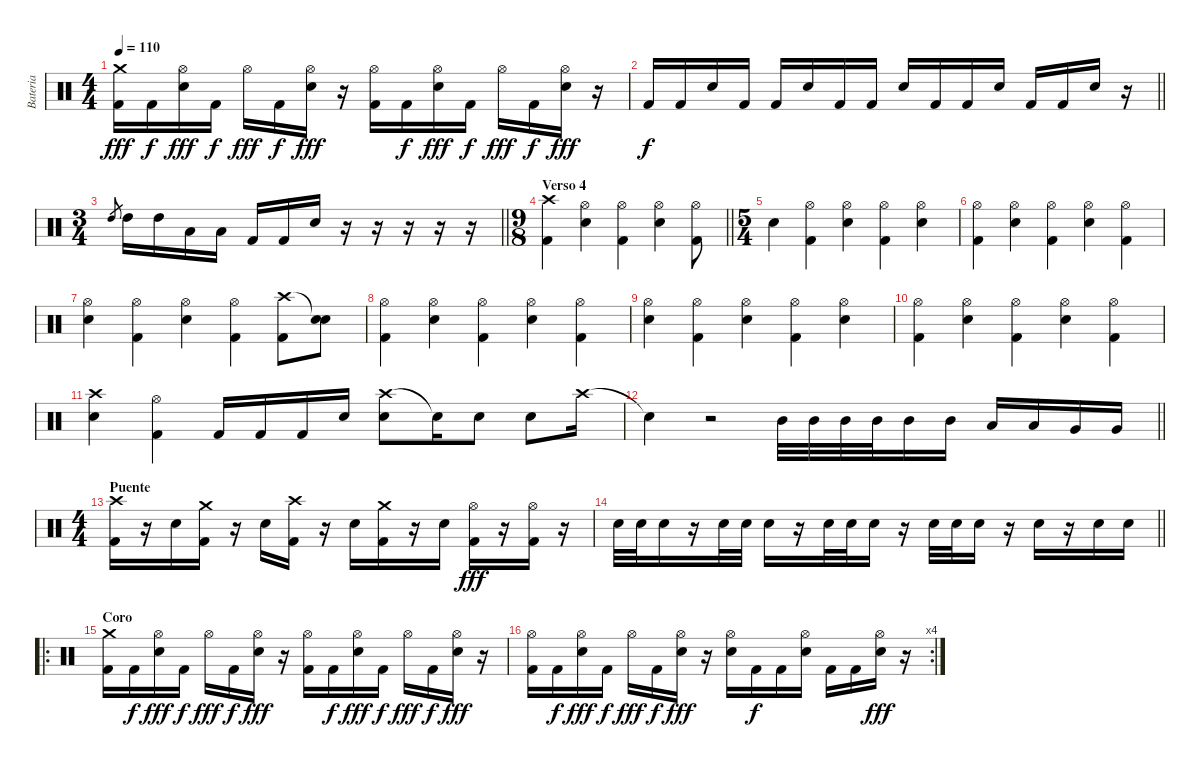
\track ("Bateria " "Bateria ") {instrument percussion}
\staff {score}
\articulation defaults
\ts (4 4)
\tempo 110
\clef neutral
\ks c
("Crash medium (hit)" "Kick (hit) 2").16{dy fff} "Kick (hit) 2".16{dy f} ("Hi-Hat (open)" "Electric Snare (hit)").16{dy fff} "Kick (hit) 2".16{dy f} "Hi-Hat (open)".16{dy fff} "Kick (hit) 2".16{dy f} ("Hi-Hat (open)" "Electric Snare (hit)").16{dy fff} r.16 ("Hi-Hat (open)" "Kick (hit) 2").16 "Kick (hit) 2".16{dy f} ("Hi-Hat (open)" "Electric Snare (hit)").16{dy fff} "Kick (hit) 2".16{dy f} "Hi-Hat (open)".16{dy fff} "Kick (hit) 2".16{dy f} ("Hi-Hat (open)" "Electric Snare (hit)").16{dy fff} r.16 |
\barLineRight lightlight "Kick (hit) 2".16{dy f} "Kick (hit) 2".16 "Electric Snare (hit)".16 "Kick (hit) 2".16 "Kick (hit) 2".16 "Electric Snare (hit)".16 "Kick (hit) 2".16 "Kick (hit) 2".16 "Electric Snare (hit)".16 "Kick (hit) 2".16 "Kick (hit) 2".16 "Electric Snare (hit)".16 "Kick (hit) 2".16 "Kick (hit) 2".16 "Electric Snare (hit)".16
r.16 |
\ts (3 4)
\barLineRight lightlight "High Tom (hit)".8{gr} "High Tom (hit)".16 "High Tom (hit)".16 "Low Tom (hit)".16 "Low Tom (hit)".16 "Kick (hit) 2".16 "Kick (hit) 2".16 "Electric Snare (hit)".16
r.16 r.16 r.16 r.16 r.16 |
\ts (9 8)
\section ("" "Verso 4")
\barLineRight lightlight
("Crash high (hit)" "Kick (hit) 2").4 ("Hi-Hat (open)" "Electric Snare (hit)").4 ("Hi-Hat (open)" "Kick (hit) 2").4 ("Hi-Hat (open)" "Electric Snare (hit)").4 ("Hi-Hat (open)" "Kick (hit) 2").8 |
\ts (5 4)
"Electric Snare (hit)".4 ("Hi-Hat (open)" "Kick (hit) 2").4 ("Hi-Hat (open)" "Electric Snare (hit)").4 ("Hi-Hat (open)" "Kick (hit) 2").4 ("Hi-Hat (open)" "Electric Snare (hit)").4 |
("Hi-Hat (open)" "Kick (hit) 2").4 ("Hi-Hat (open)" "Electric Snare (hit)").4 ("Hi-Hat (open)" "Kick (hit) 2").4 ("Hi-Hat (open)" "Electric Snare (hit)").4 ("Hi-Hat (open)" "Kick (hit) 2").4 |
("Hi-Hat (open)" "Electric Snare (hit)").4 ("Hi-Hat (open)" "Kick (hit) 2").4 ("Hi-Hat (open)" "Electric Snare (hit)").4 ("Hi-Hat (open)" "Kick (hit) 2").4 ("Crash high (hit)" "Kick (hit) 2").8 ("Snare (hit)"{t} "Electric Snare (hit)").8 |
("Hi-Hat (open)" "Kick (hit) 2").4 ("Hi-Hat (open)" "Electric Snare (hit)").4 ("Hi-Hat (open)" "Kick (hit) 2").4 ("Hi-Hat (open)" "Electric Snare (hit)").4 ("Hi-Hat (open)" "Kick (hit) 2").4 |
("Hi-Hat (open)" "Electric Snare (hit)").4 ("Hi-Hat (open)" "Kick (hit) 2").4 ("Hi-Hat (open)" "Electric Snare (hit)").4 ("Hi-Hat (open)" "Kick (hit) 2").4 ("Hi-Hat (open)" "Electric Snare (hit)").4 |
("Hi-Hat (open)" "Kick (hit) 2").4 ("Hi-Hat (open)" "Electric Snare (hit)").4 ("Hi-Hat (open)" "Kick (hit) 2").4 ("Hi-Hat (open)" "Electric Snare (hit)").4 ("Hi-Hat (open)" "Kick (hit) 2").4 |
("Crash high (hit)" "Electric Snare (hit)").4 ("Hi-Hat (open)" "Kick (hit) 2").4 "Kick (hit) 2".16 "Kick (hit) 2".16 "Kick (hit) 2".16 "Electric Snare (hit)".16 ("Crash high (hit)" "Electric Snare (hit)").8 "Snare (hit)"{t}.16 "Electric Snare (hit)".8 "Electric Snare (hit)".8 "Crash high (hit)".16 |
\barLineRight lightlight "Snare (hit)"{t}.4
r.2 "Mid Tom (hit)".32 "Mid Tom (hit)".32 "Mid Tom (hit)".32 "Mid Tom (hit)".32 "Mid Tom (hit)".16 "Mid Tom (hit)".16 "Low Tom (hit)".16 "Low Tom (hit)".16 "Very Low Tom (hit)".16 "Very Low Tom (hit)".16 |
\ts (4 4)
\section ("" "Puente")
("Crash high (hit)" "Kick (hit) 2").16 r.16 "Electric Snare (hit)".16 ("Crash medium (hit)" "Kick (hit) 2").16 r.16 "Electric Snare (hit)".16 ("Crash high (hit)" "Kick (hit) 2").16 r.16 "Electric Snare (hit)".16 ("Crash medium (hit)" "Kick (hit) 2").16 r.16 "Electric Snare (hit)".16 ("Hi-Hat (open)" "Kick (hit) 2").16{dy fff} r.16 ("Hi-Hat (open)" "Kick (hit) 2").16 r.16 |
\barLineRight lightlight "Electric Snare (hit)".32 "Electric Snare (hit)".32 "Electric Snare (hit)".16
r.16 "Electric Snare (hit)".32 "Electric Snare (hit)".32 "Electric Snare (hit)".16 r.16 "Electric Snare (hit)".32 "Electric Snare (hit)".32 "Electric Snare (hit)".16 r.16 "Electric Snare (hit)".32 "Electric Snare (hit)".32 "Electric Snare (hit)".16 r.16 "Electric Snare (hit)".16 r.16 "Electric Snare (hit)".16 "Electric Snare (hit)".16 |
\ro
\section ("" "Coro")
("Crash medium (hit)" "Kick (hit) 2").16 "Kick (hit) 2".16{dy f} ("Hi-Hat (open)" "Electric Snare (hit)").16{dy fff} "Kick (hit) 2".16{dy f} "Hi-Hat (open)".16{dy fff} "Kick (hit) 2".16{dy f} ("Hi-Hat (open)" "Electric Snare (hit)").16{dy fff} r.16 ("Hi-Hat (open)" "Kick (hit) 2").16 "Kick (hit) 2".16{dy f} ("Hi-Hat (open)" "Electric Snare (hit)").16{dy fff} "Kick (hit) 2".16{dy f} "Hi-Hat (open)".16{dy fff} "Kick (hit) 2".16{dy f} ("Hi-Hat (open)" "Electric Snare (hit)").16{dy fff} r.16 |
\rc 4
("Hi-Hat (open)" "Kick (hit) 2").16 "Kick (hit) 2".16{dy f} ("Hi-Hat (open)" "Electric Snare (hit)").16{dy fff} "Kick (hit) 2".16{dy f} "Hi-Hat (open)".16{dy fff} "Kick (hit) 2".16{dy f} ("Hi-Hat (open)" "Electric Snare (hit)").16{dy fff} r.16 ("Hi-Hat (open)" "Electric Snare (hit)").16 "Kick (hit) 2".16{dy f} "Kick (hit) 2".16 ("Hi-Hat (open)" "Electric Snare (hit)").16 "Kick (hit) 2".16 "Kick (hit) 2".16 ("Hi-Hat (open)" "Electric Snare (hit)").16{dy fff} r.16
